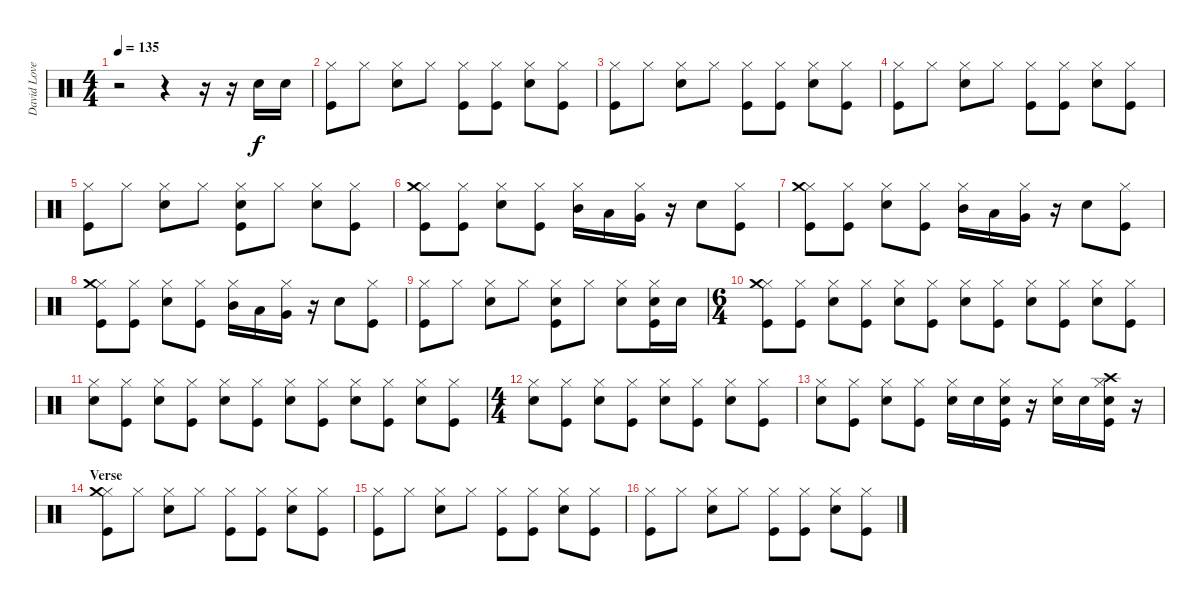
\track ("David Lovering" "David Love") {instrument percussion}
\staff {score}
\articulation defaults
\ts (4 4)
\tempo 135
\clef neutral
\ks c
r.2{dy f} r.4 r.16 r.16 "Snare (hit) 2".16 "Snare (hit) 2".16 |
("Hi-Hat (closed)" "Kick (hit)").8 "Hi-Hat (closed)".8 ("Hi-Hat (closed)" "Snare (hit) 2").8 "Hi-Hat (closed)".8 ("Hi-Hat (closed)" "Kick (hit)").8 ("Hi-Hat (closed)" "Kick (hit)").8 ("Hi-Hat (closed)" "Snare (hit) 2").8 ("Hi-Hat (closed)" "Kick (hit)").8 |
("Hi-Hat (closed)" "Kick (hit)").8 "Hi-Hat (closed)".8 ("Hi-Hat (closed)" "Snare (hit) 2").8 "Hi-Hat (closed)".8 ("Hi-Hat (closed)" "Kick (hit)").8 ("Hi-Hat (closed)" "Kick (hit)").8 ("Hi-Hat (closed)" "Snare (hit) 2").8 ("Hi-Hat (closed)" "Kick (hit)").8 |
("Hi-Hat (closed)" "Kick (hit)").8 "Hi-Hat (closed)".8 ("Hi-Hat (closed)" "Snare (hit) 2").8 "Hi-Hat (closed)".8 ("Hi-Hat (closed)" "Kick (hit)").8 ("Hi-Hat (closed)" "Kick (hit)").8 ("Hi-Hat (closed)" "Snare (hit) 2").8 ("Hi-Hat (closed)" "Kick (hit)").8 |
("Hi-Hat (closed)" "Kick (hit)").8 "Hi-Hat (closed)".8 ("Hi-Hat (closed)" "Snare (hit) 2").8 "Hi-Hat (closed)".8 ("Hi-Hat (closed)" "Snare (hit) 2" "Kick (hit)").8 "Hi-Hat (closed)".8 ("Hi-Hat (closed)" "Snare (hit) 2").8 ("Hi-Hat (closed)" "Kick (hit)").8 |
("Hi-Hat (closed)" "Crash medium (hit)" "Kick (hit)").8 ("Hi-Hat (closed)" "Kick (hit)").8 ("Hi-Hat (closed)" "Snare (hit) 2").8 ("Hi-Hat (closed)" "Kick (hit)").8 ("Hi-Hat (closed)" "Mid Tom (hit)").16 "Low Tom (hit)".16 ("Hi-Hat (closed)" "Very Low Tom (hit)").16 r.16 "Snare (hit) 2".8 ("Hi-Hat (closed)" "Kick (hit)").8 |
("Hi-Hat (closed)" "Crash medium (hit)" "Kick (hit)").8 ("Hi-Hat (closed)" "Kick (hit)").8 ("Hi-Hat (closed)" "Snare (hit) 2").8 ("Hi-Hat (closed)" "Kick (hit)").8 ("Hi-Hat (closed)" "Mid Tom (hit)").16 "Low Tom (hit)".16 ("Hi-Hat (closed)" "Very Low Tom (hit)").16 r.16 "Snare (hit) 2".8 ("Hi-Hat (closed)" "Kick (hit)").8 |
("Hi-Hat (closed)" "Crash medium (hit)" "Kick (hit)").8 ("Hi-Hat (closed)" "Kick (hit)").8 ("Hi-Hat (closed)" "Snare (hit) 2").8 ("Hi-Hat (closed)" "Kick (hit)").8 ("Hi-Hat (closed)" "Mid Tom (hit)").16 "Low Tom (hit)".16 ("Hi-Hat (closed)" "Very Low Tom (hit)").16 r.16 "Snare (hit) 2".8 ("Hi-Hat (closed)" "Kick (hit)").8 |
("Hi-Hat (closed)" "Kick (hit)").8 "Hi-Hat (closed)".8 ("Hi-Hat (closed)" "Snare (hit) 2").8 "Hi-Hat (closed)".8 ("Hi-Hat (closed)" "Snare (hit) 2" "Kick (hit)").8 "Hi-Hat (closed)".8 ("Hi-Hat (closed)" "Snare (hit) 2").8 ("Hi-Hat (closed)" "Snare (hit) 2" "Kick (hit)").16 "Snare (hit) 2".16 |
\ts (6 4)
("Hi-Hat (closed)" "Crash medium (hit)" "Kick (hit)").8 ("Hi-Hat (closed)" "Kick (hit)").8 ("Hi-Hat (closed)" "Snare (hit) 2").8 ("Hi-Hat (closed)" "Kick (hit)").8 ("Hi-Hat (closed)" "Snare (hit) 2").8 ("Hi-Hat (closed)" "Kick (hit)").8 ("Hi-Hat (closed)" "Snare (hit) 2").8 ("Hi-Hat (closed)" "Kick (hit)").8 ("Hi-Hat (closed)" "Snare (hit) 2").8 ("Hi-Hat (closed)" "Kick (hit)").8 ("Hi-Hat (closed)" "Snare (hit) 2").8 ("Hi-Hat (closed)" "Kick (hit)").8 |
("Hi-Hat (closed)" "Snare (hit) 2").8 ("Hi-Hat (closed)" "Kick (hit)").8 ("Hi-Hat (closed)" "Snare (hit) 2").8 ("Hi-Hat (closed)" "Kick (hit)").8 ("Hi-Hat (closed)" "Snare (hit) 2").8 ("Hi-Hat (closed)" "Kick (hit)").8 ("Hi-Hat (closed)" "Snare (hit) 2").8 ("Hi-Hat (closed)" "Kick (hit)").8 ("Hi-Hat (closed)" "Snare (hit) 2").8 ("Hi-Hat (closed)" "Kick (hit)").8 ("Hi-Hat (closed)" "Snare (hit) 2").8 ("Hi-Hat (closed)" "Kick (hit)").8 |
\ts (4 4)
("Hi-Hat (closed)" "Snare (hit) 2").8 ("Hi-Hat (closed)" "Kick (hit)").8 ("Hi-Hat (closed)" "Snare (hit) 2").8 ("Hi-Hat (closed)" "Kick (hit)").8 ("Hi-Hat (closed)" "Snare (hit) 2").8 ("Hi-Hat (closed)" "Kick (hit)").8 ("Hi-Hat (closed)" "Snare (hit) 2").8 ("Hi-Hat (closed)" "Kick (hit)").8 |
("Hi-Hat (closed)" "Snare (hit) 2").8 ("Hi-Hat (closed)" "Kick (hit)").8 ("Hi-Hat (closed)" "Snare (hit) 2").8 ("Hi-Hat (closed)" "Kick (hit)").8 ("Hi-Hat (closed)" "Snare (hit) 2").16 "Snare (hit) 2".16 ("Hi-Hat (closed)" "Snare (hit) 2" "Kick (hit)").16 r.16 ("Hi-Hat (closed)" "Snare (hit) 2").16 "Snare (hit) 2".16 ("Hi-Hat (closed)" "Crash high (hit)" "Snare (hit) 2" "Kick (hit)").16 r.16 |
\section ("" "Verse")
("Hi-Hat (closed)" "Crash medium (hit)" "Kick (hit)").8 "Hi-Hat (closed)".8 ("Hi-Hat (closed)" "Snare (hit) 2").8 "Hi-Hat (closed)".8 ("Hi-Hat (closed)" "Kick (hit)").8 ("Hi-Hat (closed)" "Kick (hit)").8 ("Hi-Hat (closed)" "Snare (hit) 2").8 ("Hi-Hat (closed)" "Kick (hit)").8 |
("Hi-Hat (closed)" "Kick (hit)").8 "Hi-Hat (closed)".8 ("Hi-Hat (closed)" "Snare (hit) 2").8 "Hi-Hat (closed)".8 ("Hi-Hat (closed)" "Kick (hit)").8 ("Hi-Hat (closed)" "Kick (hit)").8 ("Hi-Hat (closed)" "Snare (hit) 2").8 ("Hi-Hat (closed)" "Kick (hit)").8 |
("Hi-Hat (closed)" "Kick (hit)").8 "Hi-Hat (closed)".8 ("Hi-Hat (closed)" "Snare (hit) 2").8 "Hi-Hat (closed)".8 ("Hi-Hat (closed)" "Kick (hit)").8 ("Hi-Hat (closed)" "Kick (hit)").8 ("Hi-Hat (closed)" "Snare (hit) 2").8 ("Hi-Hat (closed)" "Kick (hit)").8
